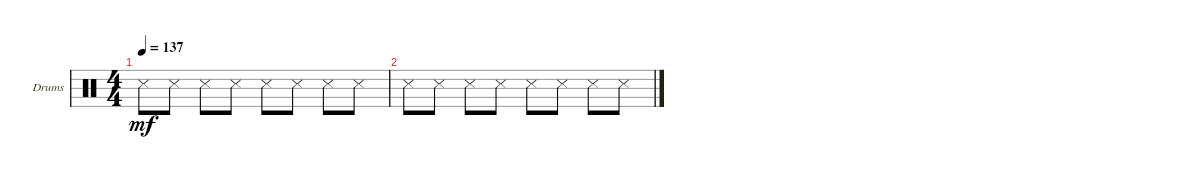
\defaultSystemsLayout 4
\bracketExtendMode groupsimilarinstruments
\firstSystemTrackNameOrientation horizontal
\otherSystemsTrackNameOrientation horizontal
\track ("Drumkit" "Drums") {instrument percussion}
\staff {score}
\articulation defaults
\ts (4 4)
\tempo 137
\clef neutral
\ks c "Snare (side stick) 3".8{dy mf} "Snare (side stick) 3".8 "Snare (side stick) 3".8 "Snare (side stick) 3".8 "Snare (side stick) 3".8 "Snare (side stick) 3".8 "Snare (side stick) 3".8 "Snare (side stick) 3".8
|
"Snare (side stick) 3".8 "Snare (side stick) 3".8 "Snare (side stick) 3".8 "Snare (side stick) 3".8 "Snare (side stick) 3".8 "Snare (side stick) 3".8 "Snare (side stick) 3".8 "Snare (side stick) 3".8
